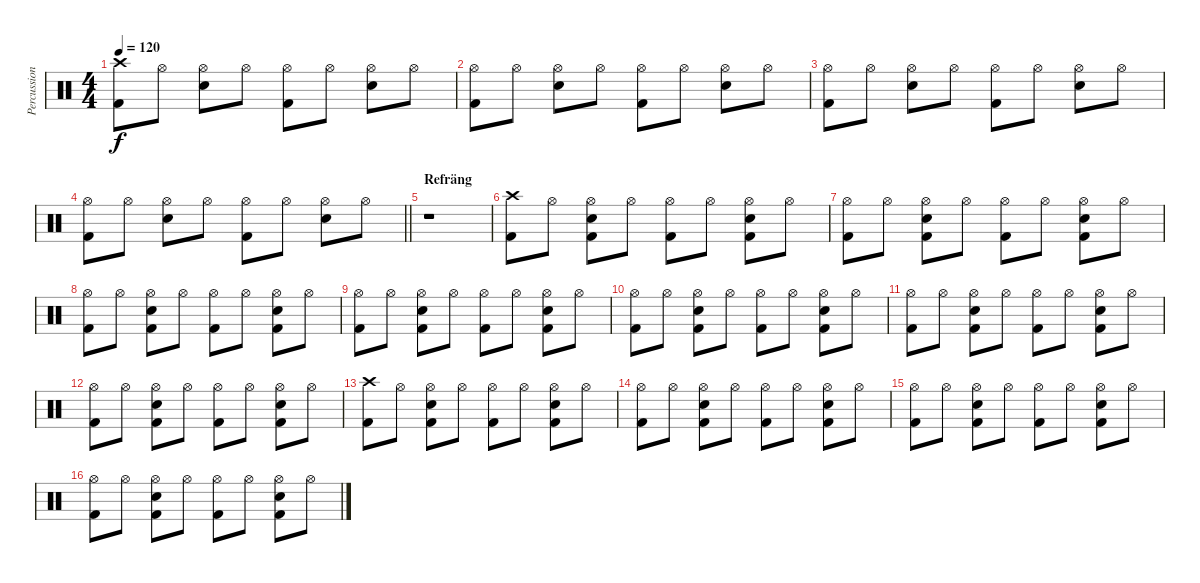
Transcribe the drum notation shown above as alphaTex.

\track ("Percussion" "Percussion") {instrument percussion}
\staff {score}
\articulation defaults
\ts (4 4)
\tempo 120
\clef neutral
\ks c
("Crash high (hit)" "Kick (hit) 2").8{dy f} "Hi-Hat (open)".8 ("Hi-Hat (open)" "Snare (hit) 2").8 "Hi-Hat (open)".8 ("Hi-Hat (open)" "Kick (hit) 2").8 "Hi-Hat (open)".8 ("Hi-Hat (open)" "Snare (hit) 2").8 "Hi-Hat (open)".8 |
("Hi-Hat (open)" "Kick (hit) 2").8 "Hi-Hat (open)".8 ("Hi-Hat (open)" "Snare (hit) 2").8 "Hi-Hat (open)".8 ("Hi-Hat (open)" "Kick (hit) 2").8 "Hi-Hat (open)".8 ("Hi-Hat (open)" "Snare (hit) 2").8 "Hi-Hat (open)".8 |
("Hi-Hat (open)" "Kick (hit) 2").8 "Hi-Hat (open)".8 ("Hi-Hat (open)" "Snare (hit) 2").8 "Hi-Hat (open)".8 ("Hi-Hat (open)" "Kick (hit) 2").8 "Hi-Hat (open)".8 ("Hi-Hat (open)" "Snare (hit) 2").8 "Hi-Hat (open)".8 |
\barLineRight lightlight
("Hi-Hat (open)" "Kick (hit) 2").8 "Hi-Hat (open)".8 ("Hi-Hat (open)" "Snare (hit) 2").8 "Hi-Hat (open)".8 ("Hi-Hat (open)" "Kick (hit) 2").8 "Hi-Hat (open)".8 ("Hi-Hat (open)" "Snare (hit) 2").8 "Hi-Hat (open)".8 |
\section ("" "Refräng")
r.1 |
("Crash high (hit)" "Kick (hit) 2").8 "Hi-Hat (open)".8 ("Hi-Hat (open)" "Snare (hit) 2" "Kick (hit) 2").8 "Hi-Hat (open)".8 ("Hi-Hat (open)" "Kick (hit) 2").8 "Hi-Hat (open)".8 ("Hi-Hat (open)" "Snare (hit) 2" "Kick (hit) 2").8 "Hi-Hat (open)".8 |
("Hi-Hat (open)" "Kick (hit) 2").8 "Hi-Hat (open)".8 ("Hi-Hat (open)" "Snare (hit) 2" "Kick (hit) 2").8 "Hi-Hat (open)".8 ("Hi-Hat (open)" "Kick (hit) 2").8 "Hi-Hat (open)".8 ("Hi-Hat (open)" "Snare (hit) 2" "Kick (hit) 2").8 "Hi-Hat (open)".8 |
("Hi-Hat (open)" "Kick (hit) 2").8 "Hi-Hat (open)".8 ("Hi-Hat (open)" "Snare (hit) 2" "Kick (hit) 2").8 "Hi-Hat (open)".8 ("Hi-Hat (open)" "Kick (hit) 2").8 "Hi-Hat (open)".8 ("Hi-Hat (open)" "Snare (hit) 2" "Kick (hit) 2").8 "Hi-Hat (open)".8 |
("Hi-Hat (open)" "Kick (hit) 2").8 "Hi-Hat (open)".8 ("Hi-Hat (open)" "Snare (hit) 2" "Kick (hit) 2").8 "Hi-Hat (open)".8 ("Hi-Hat (open)" "Kick (hit) 2").8 "Hi-Hat (open)".8 ("Hi-Hat (open)" "Snare (hit) 2" "Kick (hit) 2").8 "Hi-Hat (open)".8 |
("Hi-Hat (open)" "Kick (hit) 2").8 "Hi-Hat (open)".8 ("Hi-Hat (open)" "Snare (hit) 2" "Kick (hit) 2").8 "Hi-Hat (open)".8 ("Hi-Hat (open)" "Kick (hit) 2").8 "Hi-Hat (open)".8 ("Hi-Hat (open)" "Snare (hit) 2" "Kick (hit) 2").8 "Hi-Hat (open)".8 |
("Hi-Hat (open)" "Kick (hit) 2").8 "Hi-Hat (open)".8 ("Hi-Hat (open)" "Snare (hit) 2" "Kick (hit) 2").8 "Hi-Hat (open)".8 ("Hi-Hat (open)" "Kick (hit) 2").8 "Hi-Hat (open)".8 ("Hi-Hat (open)" "Snare (hit) 2" "Kick (hit) 2").8 "Hi-Hat (open)".8 |
("Hi-Hat (open)" "Kick (hit) 2").8 "Hi-Hat (open)".8 ("Hi-Hat (open)" "Snare (hit) 2" "Kick (hit) 2").8 "Hi-Hat (open)".8 ("Hi-Hat (open)" "Kick (hit) 2").8 "Hi-Hat (open)".8 ("Hi-Hat (open)" "Snare (hit) 2" "Kick (hit) 2").8 "Hi-Hat (open)".8 |
("Crash high (hit)" "Kick (hit) 2").8 "Hi-Hat (open)".8 ("Hi-Hat (open)" "Snare (hit) 2" "Kick (hit) 2").8 "Hi-Hat (open)".8 ("Hi-Hat (open)" "Kick (hit) 2").8 "Hi-Hat (open)".8 ("Hi-Hat (open)" "Snare (hit) 2" "Kick (hit) 2").8 "Hi-Hat (open)".8 |
("Hi-Hat (open)" "Kick (hit) 2").8 "Hi-Hat (open)".8 ("Hi-Hat (open)" "Snare (hit) 2" "Kick (hit) 2").8 "Hi-Hat (open)".8 ("Hi-Hat (open)" "Kick (hit) 2").8 "Hi-Hat (open)".8 ("Hi-Hat (open)" "Snare (hit) 2" "Kick (hit) 2").8 "Hi-Hat (open)".8 |
("Hi-Hat (open)" "Kick (hit) 2").8 "Hi-Hat (open)".8 ("Hi-Hat (open)" "Snare (hit) 2" "Kick (hit) 2").8 "Hi-Hat (open)".8 ("Hi-Hat (open)" "Kick (hit) 2").8 "Hi-Hat (open)".8 ("Hi-Hat (open)" "Snare (hit) 2" "Kick (hit) 2").8 "Hi-Hat (open)".8 |
("Hi-Hat (open)" "Kick (hit) 2").8 "Hi-Hat (open)".8 ("Hi-Hat (open)" "Snare (hit) 2" "Kick (hit) 2").8 "Hi-Hat (open)".8 ("Hi-Hat (open)" "Kick (hit) 2").8 "Hi-Hat (open)".8 ("Hi-Hat (open)" "Snare (hit) 2" "Kick (hit) 2").8 "Hi-Hat (open)".8
